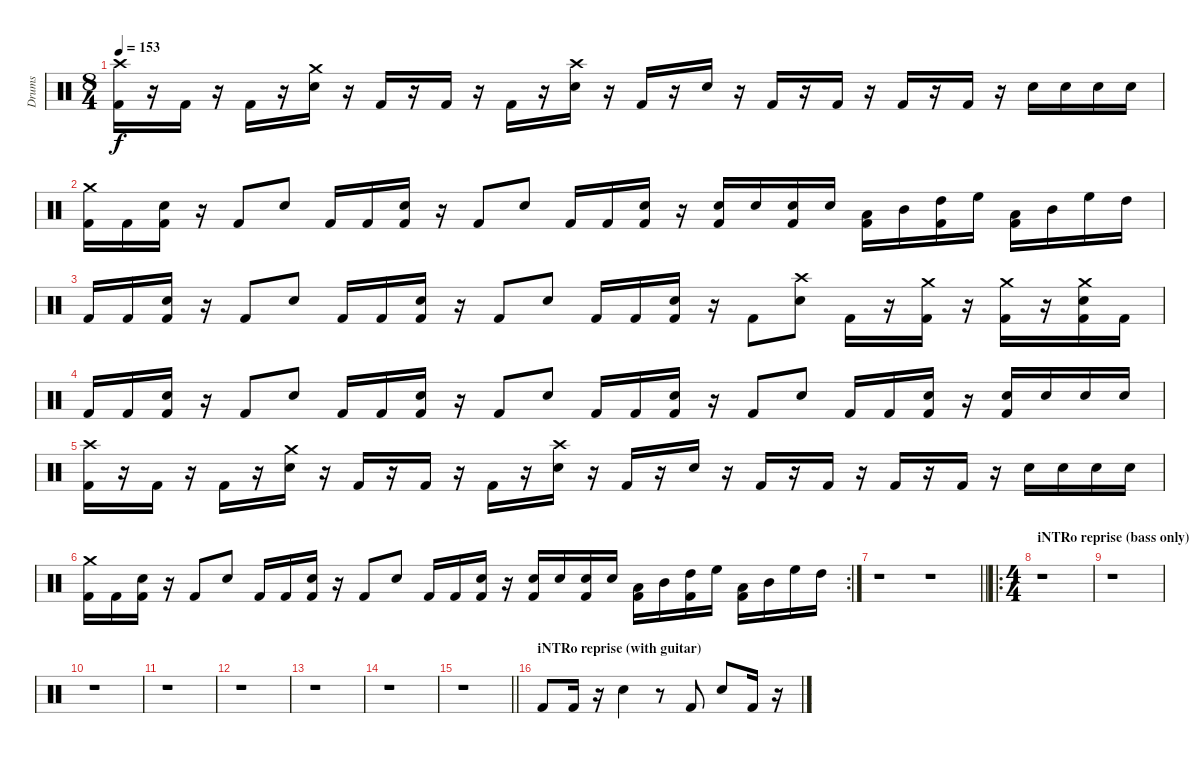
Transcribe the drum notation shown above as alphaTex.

\track ("Drums" "Drums") {instrument percussion}
\staff {score}
\articulation defaults
\ts (8 4)
\tempo 153
\clef neutral
\ks c
("Crash high (hit)" "Kick (hit) 2").16{dy f} r.16 "Kick (hit) 2".16 r.16 "Kick (hit) 2".16 r.16 ("Crash medium (hit)" "Electric Snare (hit)").16 r.16 "Kick (hit) 2".16 r.16 "Kick (hit) 2".16 r.16 "Kick (hit) 2".16 r.16 ("Crash high (hit)" "Electric Snare (hit)").16 r.16 "Kick (hit) 2".16 r.16 "Electric Snare (hit)".16 r.16 "Kick (hit) 2".16 r.16 "Kick (hit) 2".16 r.16 "Kick (hit) 2".16 r.16 "Kick (hit) 2".16 r.16 "Metronome (bell)".16 "Metronome (bell)".16 "Metronome (bell)".16 "Metronome (bell)".16 |
("Crash medium (hit)" "Kick (hit) 2").16 "Kick (hit) 2".16 ("Electric Snare (hit)" "Kick (hit) 2").16 r.16 "Kick (hit) 2".8 "Electric Snare (hit)".8 "Kick (hit) 2".16 "Kick (hit) 2".16 ("Electric Snare (hit)" "Kick (hit) 2").16 r.16 "Kick (hit) 2".8 "Electric Snare (hit)".8 "Kick (hit) 2".16 "Kick (hit) 2".16 ("Electric Snare (hit)" "Kick (hit) 2").16 r.16 ("Metronome (bell)" "Kick (hit) 2").16 "Metronome (bell)".16 ("Metronome (bell)" "Kick (hit) 2").16 "Metronome (bell)".16 ("Low Tom (hit)" "Kick (hit) 2").16 "Mid Tom (hit)".16 ("High Tom (hit)" "Kick (hit) 2").16 "High Floor Tom (hit)".16 ("Low Tom (hit)" "Kick (hit) 2").16 "Mid Tom (hit)".16 "High Floor Tom (hit)".16 "High Tom (hit)".16 |
"Kick (hit) 2".16 "Kick (hit) 2".16 ("Electric Snare (hit)" "Kick (hit) 2").16 r.16 "Kick (hit) 2".8 "Electric Snare (hit)".8 "Kick (hit) 2".16 "Kick (hit) 2".16 ("Electric Snare (hit)" "Kick (hit) 2").16 r.16 "Kick (hit) 2".8 "Electric Snare (hit)".8 "Kick (hit) 2".16 "Kick (hit) 2".16 ("Electric Snare (hit)" "Kick (hit) 2").16 r.16 "Kick (hit) 2".8 ("Crash high (hit)" "Electric Snare (hit)").8 "Kick (hit) 2".16 r.16 ("Crash medium (hit)" "Kick (hit) 2").16 r.16 ("Crash medium (hit)" "Kick (hit) 2").16 r.16 ("Crash medium (hit)" "Electric Snare (hit)" "Kick (hit) 2").16 "Kick (hit) 2".16 |
"Kick (hit) 2".16 "Kick (hit) 2".16 ("Electric Snare (hit)" "Kick (hit) 2").16 r.16 "Kick (hit) 2".8 "Electric Snare (hit)".8 "Kick (hit) 2".16 "Kick (hit) 2".16 ("Electric Snare (hit)" "Kick (hit) 2").16 r.16 "Kick (hit) 2".8 "Electric Snare (hit)".8 "Kick (hit) 2".16 "Kick (hit) 2".16 ("Electric Snare (hit)" "Kick (hit) 2").16 r.16 "Kick (hit) 2".8 "Electric Snare (hit)".8 "Kick (hit) 2".16 "Kick (hit) 2".16 ("Electric Snare (hit)" "Kick (hit) 2").16 r.16 ("Metronome (bell)" "Kick (hit) 2").16 "Metronome (bell)".16 "Metronome (bell)".16 "Metronome (bell)".16 |
("Crash high (hit)" "Kick (hit) 2").16 r.16 "Kick (hit) 2".16 r.16 "Kick (hit) 2".16 r.16 ("Crash medium (hit)" "Electric Snare (hit)").16 r.16 "Kick (hit) 2".16 r.16 "Kick (hit) 2".16 r.16 "Kick (hit) 2".16 r.16 ("Crash high (hit)" "Electric Snare (hit)").16 r.16 "Kick (hit) 2".16 r.16 "Electric Snare (hit)".16 r.16 "Kick (hit) 2".16 r.16 "Kick (hit) 2".16 r.16 "Kick (hit) 2".16 r.16 "Kick (hit) 2".16 r.16 "Metronome (bell)".16 "Metronome (bell)".16 "Metronome (bell)".16 "Metronome (bell)".16 |
\rc 2
("Crash medium (hit)" "Kick (hit) 2").16 "Kick (hit) 2".16 ("Electric Snare (hit)" "Kick (hit) 2").16 r.16 "Kick (hit) 2".8 "Electric Snare (hit)".8 "Kick (hit) 2".16 "Kick (hit) 2".16 ("Electric Snare (hit)" "Kick (hit) 2").16 r.16 "Kick (hit) 2".8 "Electric Snare (hit)".8 "Kick (hit) 2".16 "Kick (hit) 2".16 ("Electric Snare (hit)" "Kick (hit) 2").16 r.16 ("Metronome (bell)" "Kick (hit) 2").16 "Metronome (bell)".16 ("Metronome (bell)" "Kick (hit) 2").16 "Metronome (bell)".16 ("Low Tom (hit)" "Kick (hit) 2").16 "Mid Tom (hit)".16 ("High Tom (hit)" "Kick (hit) 2").16 "High Floor Tom (hit)".16 ("Low Tom (hit)" "Kick (hit) 2").16 "Mid Tom (hit)".16 "High Floor Tom (hit)".16 "High Tom (hit)".16 |
\barLineRight lightlight
r.1 r.1 |
\ro
\ts (4 4)
\section ("" "iNTRo reprise (bass only)")
r.1 |
r.1 |
r.1 |
r.1 |
r.1 |
r.1 |
r.1 |
\barLineRight lightlight
r.1 |
\section ("" "iNTRo reprise (with guitar)")
"Kick (hit) 2".8 "Kick (hit) 2".16 r.16 "Electric Snare (hit)".4 r.8 "Kick (hit) 2".8 "Electric Snare (hit)".8 "Kick (hit) 2".16 r.16
